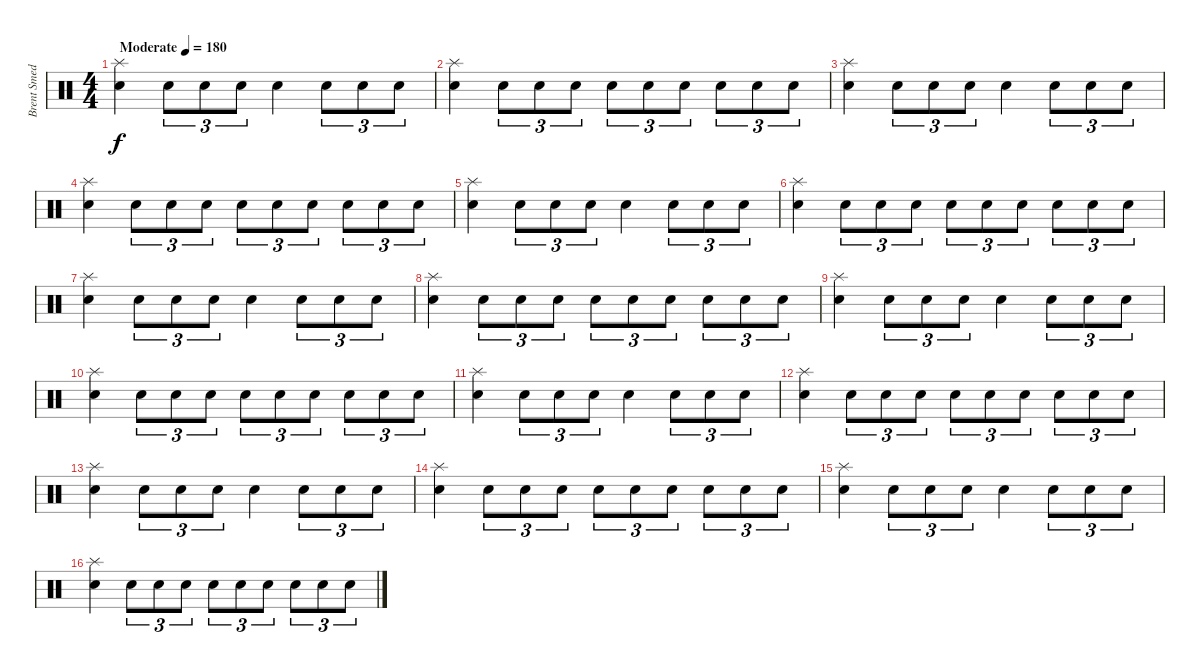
\track ("Brent Smedley" "Brent Smed") {instrument percussion}
\staff {score}
\articulation defaults
\ts (4 4)
\tempo (180 "Moderate")
\tempo 120
\tempo (180 "Moderate")
\clef neutral
\ks c
("Splash (hit)" "Snare (hit) 2").4{dy f} "Snare (hit) 2".8{tu (3 2)} "Snare (hit) 2".8{tu (3 2)} "Snare (hit) 2".8{tu (3 2)} "Snare (hit) 2".4 "Snare (hit) 2".8{tu (3 2)} "Snare (hit) 2".8{tu (3 2)} "Snare (hit) 2".8{tu (3 2)} |
("Splash (hit)" "Snare (hit) 2").4 "Snare (hit) 2".8{tu (3 2)} "Snare (hit) 2".8{tu (3 2)} "Snare (hit) 2".8{tu (3 2)} "Snare (hit) 2".8{tu (3 2)} "Snare (hit) 2".8{tu (3 2)} "Snare (hit) 2".8{tu (3 2)} "Snare (hit) 2".8{tu (3 2)} "Snare (hit) 2".8{tu (3 2)} "Snare (hit) 2".8{tu (3 2)} |
("Splash (hit)" "Snare (hit) 2").4 "Snare (hit) 2".8{tu (3 2)} "Snare (hit) 2".8{tu (3 2)} "Snare (hit) 2".8{tu (3 2)} "Snare (hit) 2".4 "Snare (hit) 2".8{tu (3 2)} "Snare (hit) 2".8{tu (3 2)} "Snare (hit) 2".8{tu (3 2)} |
("Splash (hit)" "Snare (hit) 2").4 "Snare (hit) 2".8{tu (3 2)} "Snare (hit) 2".8{tu (3 2)} "Snare (hit) 2".8{tu (3 2)} "Snare (hit) 2".8{tu (3 2)} "Snare (hit) 2".8{tu (3 2)} "Snare (hit) 2".8{tu (3 2)} "Snare (hit) 2".8{tu (3 2)} "Snare (hit) 2".8{tu (3 2)} "Snare (hit) 2".8{tu (3 2)} |
("Splash (hit)" "Snare (hit) 2").4 "Snare (hit) 2".8{tu (3 2)} "Snare (hit) 2".8{tu (3 2)} "Snare (hit) 2".8{tu (3 2)} "Snare (hit) 2".4 "Snare (hit) 2".8{tu (3 2)} "Snare (hit) 2".8{tu (3 2)} "Snare (hit) 2".8{tu (3 2)} |
("Splash (hit)" "Snare (hit) 2").4 "Snare (hit) 2".8{tu (3 2)} "Snare (hit) 2".8{tu (3 2)} "Snare (hit) 2".8{tu (3 2)} "Snare (hit) 2".8{tu (3 2)} "Snare (hit) 2".8{tu (3 2)} "Snare (hit) 2".8{tu (3 2)} "Snare (hit) 2".8{tu (3 2)} "Snare (hit) 2".8{tu (3 2)} "Snare (hit) 2".8{tu (3 2)} |
("Splash (hit)" "Snare (hit) 2").4 "Snare (hit) 2".8{tu (3 2)} "Snare (hit) 2".8{tu (3 2)} "Snare (hit) 2".8{tu (3 2)} "Snare (hit) 2".4 "Snare (hit) 2".8{tu (3 2)} "Snare (hit) 2".8{tu (3 2)} "Snare (hit) 2".8{tu (3 2)} |
("Splash (hit)" "Snare (hit) 2").4 "Snare (hit) 2".8{tu (3 2)} "Snare (hit) 2".8{tu (3 2)} "Snare (hit) 2".8{tu (3 2)} "Snare (hit) 2".8{tu (3 2)} "Snare (hit) 2".8{tu (3 2)} "Snare (hit) 2".8{tu (3 2)} "Snare (hit) 2".8{tu (3 2)} "Snare (hit) 2".8{tu (3 2)} "Snare (hit) 2".8{tu (3 2)} |
("Splash (hit)" "Snare (hit) 2").4 "Snare (hit) 2".8{tu (3 2)} "Snare (hit) 2".8{tu (3 2)} "Snare (hit) 2".8{tu (3 2)} "Snare (hit) 2".4 "Snare (hit) 2".8{tu (3 2)} "Snare (hit) 2".8{tu (3 2)} "Snare (hit) 2".8{tu (3 2)} |
("Splash (hit)" "Snare (hit) 2").4 "Snare (hit) 2".8{tu (3 2)} "Snare (hit) 2".8{tu (3 2)} "Snare (hit) 2".8{tu (3 2)} "Snare (hit) 2".8{tu (3 2)} "Snare (hit) 2".8{tu (3 2)} "Snare (hit) 2".8{tu (3 2)} "Snare (hit) 2".8{tu (3 2)} "Snare (hit) 2".8{tu (3 2)} "Snare (hit) 2".8{tu (3 2)} |
("Splash (hit)" "Snare (hit) 2").4 "Snare (hit) 2".8{tu (3 2)} "Snare (hit) 2".8{tu (3 2)} "Snare (hit) 2".8{tu (3 2)} "Snare (hit) 2".4 "Snare (hit) 2".8{tu (3 2)} "Snare (hit) 2".8{tu (3 2)} "Snare (hit) 2".8{tu (3 2)} |
("Splash (hit)" "Snare (hit) 2").4 "Snare (hit) 2".8{tu (3 2)} "Snare (hit) 2".8{tu (3 2)} "Snare (hit) 2".8{tu (3 2)} "Snare (hit) 2".8{tu (3 2)} "Snare (hit) 2".8{tu (3 2)} "Snare (hit) 2".8{tu (3 2)} "Snare (hit) 2".8{tu (3 2)} "Snare (hit) 2".8{tu (3 2)} "Snare (hit) 2".8{tu (3 2)} |
("Splash (hit)" "Snare (hit) 2").4 "Snare (hit) 2".8{tu (3 2)} "Snare (hit) 2".8{tu (3 2)} "Snare (hit) 2".8{tu (3 2)} "Snare (hit) 2".4 "Snare (hit) 2".8{tu (3 2)} "Snare (hit) 2".8{tu (3 2)} "Snare (hit) 2".8{tu (3 2)} |
("Splash (hit)" "Snare (hit) 2").4 "Snare (hit) 2".8{tu (3 2)} "Snare (hit) 2".8{tu (3 2)} "Snare (hit) 2".8{tu (3 2)} "Snare (hit) 2".8{tu (3 2)} "Snare (hit) 2".8{tu (3 2)} "Snare (hit) 2".8{tu (3 2)} "Snare (hit) 2".8{tu (3 2)} "Snare (hit) 2".8{tu (3 2)} "Snare (hit) 2".8{tu (3 2)} |
("Splash (hit)" "Snare (hit) 2").4 "Snare (hit) 2".8{tu (3 2)} "Snare (hit) 2".8{tu (3 2)} "Snare (hit) 2".8{tu (3 2)} "Snare (hit) 2".4 "Snare (hit) 2".8{tu (3 2)} "Snare (hit) 2".8{tu (3 2)} "Snare (hit) 2".8{tu (3 2)} |
("Splash (hit)" "Snare (hit) 2").4 "Snare (hit) 2".8{tu (3 2)} "Snare (hit) 2".8{tu (3 2)} "Snare (hit) 2".8{tu (3 2)} "Snare (hit) 2".8{tu (3 2)} "Snare (hit) 2".8{tu (3 2)} "Snare (hit) 2".8{tu (3 2)} "Snare (hit) 2".8{tu (3 2)} "Snare (hit) 2".8{tu (3 2)} "Snare (hit) 2".8{tu (3 2)}
